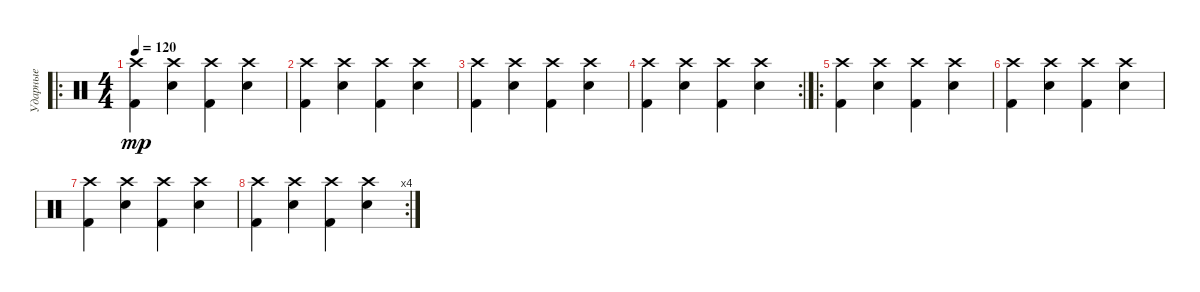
\track ("Ударные" "Ударные") {instrument percussion}
\staff {score}
\articulation defaults
\ro
\ts (4 4)
\tempo 120
\clef neutral
\ks c
("Crash high (hit)" "Kick (hit) 2").4{dy mp} ("Crash high (hit)" "Snare (hit) 2").4 ("Crash high (hit)" "Kick (hit) 2").4 ("Crash high (hit)" "Snare (hit) 2").4 |
("Crash high (hit)" "Kick (hit) 2").4 ("Crash high (hit)" "Snare (hit) 2").4 ("Crash high (hit)" "Kick (hit) 2").4 ("Crash high (hit)" "Snare (hit) 2").4 |
("Crash high (hit)" "Kick (hit) 2").4 ("Crash high (hit)" "Snare (hit) 2").4 ("Crash high (hit)" "Kick (hit) 2").4 ("Crash high (hit)" "Snare (hit) 2").4 |
\rc 2
("Crash high (hit)" "Kick (hit) 2").4 ("Crash high (hit)" "Snare (hit) 2").4 ("Crash high (hit)" "Kick (hit) 2").4 ("Crash high (hit)" "Snare (hit) 2").4 |
\ro
("Crash high (hit)" "Kick (hit) 2").4 ("Crash high (hit)" "Snare (hit) 2").4 ("Crash high (hit)" "Kick (hit) 2").4 ("Crash high (hit)" "Snare (hit) 2").4 |
("Crash high (hit)" "Kick (hit) 2").4 ("Crash high (hit)" "Snare (hit) 2").4 ("Crash high (hit)" "Kick (hit) 2").4 ("Crash high (hit)" "Snare (hit) 2").4 |
("Crash high (hit)" "Kick (hit) 2").4 ("Crash high (hit)" "Snare (hit) 2").4 ("Crash high (hit)" "Kick (hit) 2").4 ("Crash high (hit)" "Snare (hit) 2").4 |
\rc 4
("Crash high (hit)" "Kick (hit) 2").4 ("Crash high (hit)" "Snare (hit) 2").4 ("Crash high (hit)" "Kick (hit) 2").4 ("Crash high (hit)" "Snare (hit) 2").4
